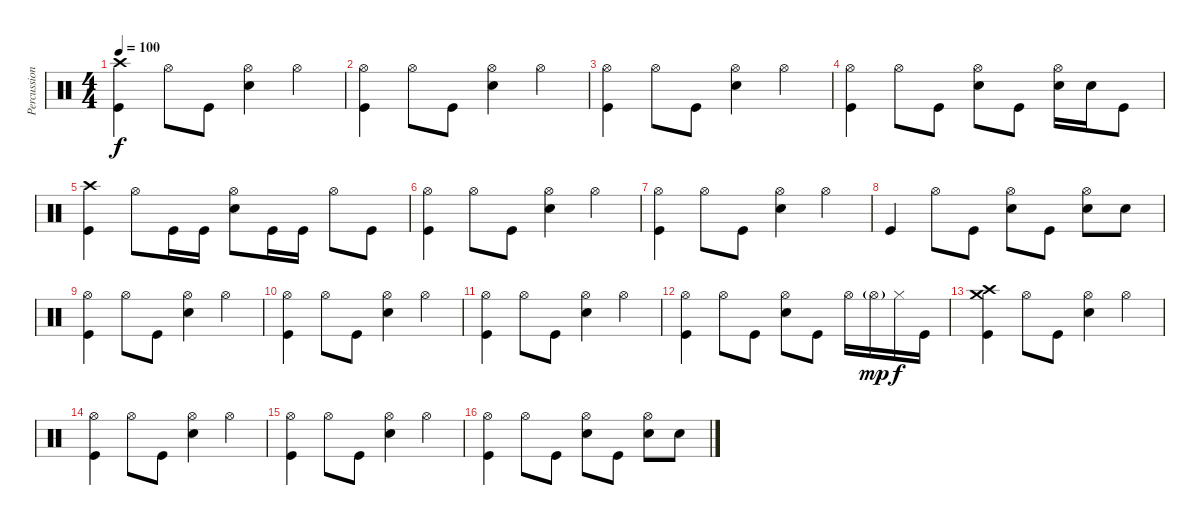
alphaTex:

\track ("Percussion" "Percussion") {instrument percussion}
\staff {score}
\articulation defaults
\ts (4 4)
\tempo 100
\clef neutral
\ks c
("Crash high (hit)" "Kick (hit)").4{dy f} "Hi-Hat (open)".8 "Kick (hit)".8 ("Hi-Hat (open)" "Snare (hit) 2").4 "Hi-Hat (open)".4 |
("Hi-Hat (open)" "Kick (hit)").4 "Hi-Hat (open)".8 "Kick (hit)".8 ("Hi-Hat (open)" "Snare (hit) 2").4 "Hi-Hat (open)".4 |
("Hi-Hat (open)" "Kick (hit)").4 "Hi-Hat (open)".8 "Kick (hit)".8 ("Hi-Hat (open)" "Snare (hit) 2").4 "Hi-Hat (open)".4 |
("Hi-Hat (open)" "Kick (hit)").4 "Hi-Hat (open)".8 "Kick (hit)".8 ("Hi-Hat (open)" "Snare (hit) 2").8 "Kick (hit)".8 ("Hi-Hat (open)" "Snare (hit) 2").16 "Snare (hit) 2".16 "Kick (hit)".8 |
("Crash high (hit)" "Kick (hit)").4 "Hi-Hat (open)".8 "Kick (hit)".16 "Kick (hit)".16 ("Hi-Hat (open)" "Snare (hit) 2").8 "Kick (hit)".16 "Kick (hit)".16 "Hi-Hat (open)".8 "Kick (hit)".8 |
("Hi-Hat (open)" "Kick (hit)").4 "Hi-Hat (open)".8 "Kick (hit)".8 ("Hi-Hat (open)" "Snare (hit) 2").4 "Hi-Hat (open)".4 |
("Hi-Hat (open)" "Kick (hit)").4 "Hi-Hat (open)".8 "Kick (hit)".8 ("Hi-Hat (open)" "Snare (hit) 2").4 "Hi-Hat (open)".4 |
"Kick (hit)".4 "Hi-Hat (open)".8 "Kick (hit)".8 ("Hi-Hat (open)" "Snare (hit) 2").8 "Kick (hit)".8 ("Hi-Hat (open)" "Snare (hit) 2").8 "Snare (hit) 2".8 |
("Hi-Hat (open)" "Kick (hit)").4 "Hi-Hat (open)".8 "Kick (hit)".8 ("Hi-Hat (open)" "Snare (hit) 2").4 "Hi-Hat (open)".4 |
("Hi-Hat (open)" "Kick (hit)").4 "Hi-Hat (open)".8 "Kick (hit)".8 ("Hi-Hat (open)" "Snare (hit) 2").4 "Hi-Hat (open)".4 |
("Hi-Hat (open)" "Kick (hit)").4 "Hi-Hat (open)".8 "Kick (hit)".8 ("Hi-Hat (open)" "Snare (hit) 2").4 "Hi-Hat (open)".4 |
("Hi-Hat (open)" "Kick (hit)").4 "Hi-Hat (open)".8 "Kick (hit)".8 ("Hi-Hat (open)" "Snare (hit) 2").8 "Kick (hit)".8 "Hi-Hat (open)".16 "Hi-Hat (open)"{g}.16{dy mp} "Hi-Hat (closed)".16{dy f} "Kick (hit)".16 |
("Crash high (hit)" "Crash medium (hit)" "Kick (hit)").4 "Hi-Hat (open)".8 "Kick (hit)".8 ("Hi-Hat (open)" "Snare (hit) 2").4 "Hi-Hat (open)".4 |
("Hi-Hat (open)" "Kick (hit)").4 "Hi-Hat (open)".8 "Kick (hit)".8 ("Hi-Hat (open)" "Snare (hit) 2").4 "Hi-Hat (open)".4 |
("Hi-Hat (open)" "Kick (hit)").4 "Hi-Hat (open)".8 "Kick (hit)".8 ("Hi-Hat (open)" "Snare (hit) 2").4 "Hi-Hat (open)".4 |
("Hi-Hat (open)" "Kick (hit)").4 "Hi-Hat (open)".8 "Kick (hit)".8 ("Hi-Hat (open)" "Snare (hit) 2").8 "Kick (hit)".8 ("Hi-Hat (open)" "Snare (hit) 2").8 "Snare (hit) 2".8
